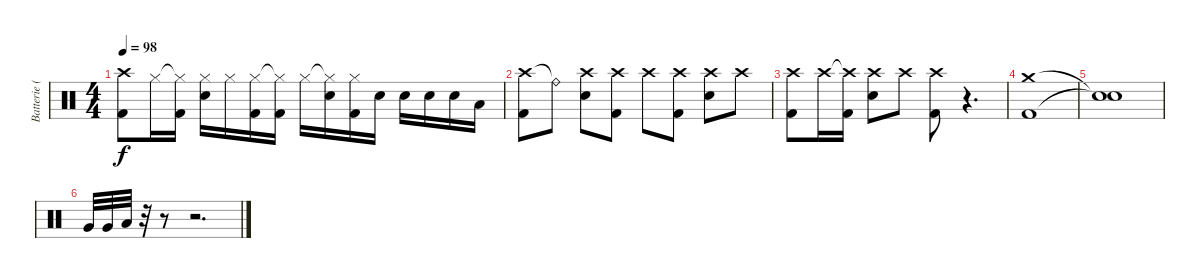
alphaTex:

\track ("Batterie (Alfredo Hernandez)" "Batterie (") {instrument percussion}
\staff {score}
\articulation defaults
\ts (4 4)
\tempo 98
\clef neutral
\ks c
("Crash high (hit)" "Kick (hit) 2").8{dy f} "Hi-Hat (closed)".16 ("Hi-Hat (closed)"{t} "Kick (hit) 2").16 ("Hi-Hat (closed)" "Electric Snare (hit)").16 "Hi-Hat (closed)".16 ("Hi-Hat (closed)" "Kick (hit) 2").16 ("Hi-Hat (closed)"{t} "Kick (hit) 2").16 "Hi-Hat (closed)".16 ("Hi-Hat (closed)"{t} "Electric Snare (hit)").16 ("Hi-Hat (closed)" "Kick (hit) 2").16 "Electric Snare (hit)".16 "Electric Snare (hit)".16 "Electric Snare (hit)".16 "Electric Snare (hit)".16 "Low Floor Tom (hit)".16 |
("Crash high (hit)" "Kick (hit) 2").8 "Ride (bell)"{t}.8 ("Crash high (hit)" "Electric Snare (hit)").8 ("Crash high (hit)" "Kick (hit) 2").8 "Crash high (hit)".8 ("Crash high (hit)" "Kick (hit) 2").8 ("Crash high (hit)" "Electric Snare (hit)").8 "Crash high (hit)".8 |
("Crash high (hit)" "Kick (hit) 2").8 "Crash high (hit)".16 ("Crash high (hit)"{t} "Kick (hit) 2").16 ("Crash high (hit)" "Electric Snare (hit)").8 "Crash high (hit)".8 ("Crash high (hit)" "Kick (hit) 2").8 r.4{d} |
("Crash medium (hit)" "Kick (hit) 2").1 |
("Snare (hit)"{t} "Snare (hit)"{t}).1 |
"Very Low Tom (hit)".32 "Very Low Tom (hit)".32 "Low Floor Tom (hit)".32 r.32 r.8 r.2{d}
